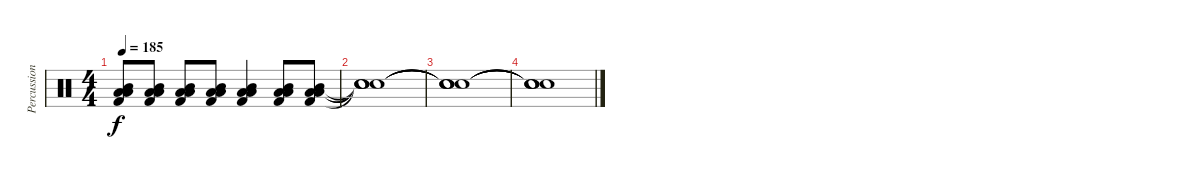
\track ("Percussion" "Percussion") {instrument percussion}
\staff {score}
\articulation defaults
\ts (4 4)
\tempo 185
\clef neutral
\ks c
("Low Floor Tom (hit)" "Mid Tom (hit)" "Low Tom (hit)" "Kick (hit) 2").8{dy f} ("Low Floor Tom (hit)" "Mid Tom (hit)" "Low Tom (hit)" "Kick (hit) 2").8 ("Low Floor Tom (hit)" "Mid Tom (hit)" "Low Tom (hit)" "Kick (hit) 2").8 ("Low Floor Tom (hit)" "Mid Tom (hit)" "Low Tom (hit)" "Kick (hit) 2").8 ("Low Floor Tom (hit)" "Mid Tom (hit)" "Low Tom (hit)" "Kick (hit) 2").4 ("Low Floor Tom (hit)" "Mid Tom (hit)" "Low Tom (hit)" "Kick (hit) 2").8 ("Low Floor Tom (hit)" "Mid Tom (hit)" "Low Tom (hit)" "Kick (hit) 2").8 |
("Snare (hit)"{t} "Snare (hit)"{t} "Snare (hit)"{t} "Snare (hit)"{t}).1 |
("Snare (hit)"{t} "Snare (hit)"{t} "Snare (hit)"{t} "Snare (hit)"{t}).1 |
("Snare (hit)"{t} "Snare (hit)"{t} "Snare (hit)"{t} "Snare (hit)"{t}).1
